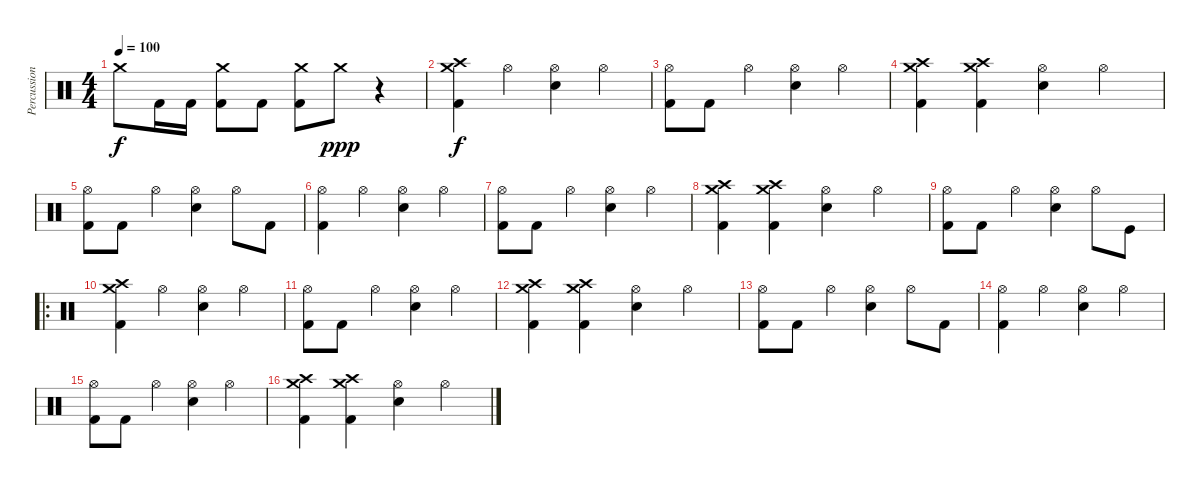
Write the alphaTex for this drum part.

\track ("Percussion" "Percussion") {instrument percussion}
\staff {score}
\articulation defaults
\ts (4 4)
\tempo 100
\clef neutral
\ks c "Crash medium (hit)".8{dy f} "Kick (hit) 2".16 "Kick (hit) 2".16
("Crash medium (hit)" "Kick (hit) 2").8 "Kick (hit) 2".8 ("Crash medium (hit)" "Kick (hit) 2").8 "Crash medium (hit)".8{dy ppp} r.4 |
("Crash high (hit)" "Crash medium (hit)" "Kick (hit) 2").4{dy f} "Hi-Hat (open)".4 ("Hi-Hat (open)" "Snare (hit) 2").4 "Hi-Hat (open)".4 |
("Hi-Hat (open)" "Kick (hit) 2").8 "Kick (hit) 2".8 "Hi-Hat (open)".4 ("Hi-Hat (open)" "Snare (hit) 2").4 "Hi-Hat (open)".4 |
("Crash high (hit)" "Crash medium (hit)" "Kick (hit) 2").4 ("Crash high (hit)" "Crash medium (hit)" "Kick (hit) 2").4 ("Hi-Hat (open)" "Snare (hit) 2").4 "Hi-Hat (open)".4 |
("Hi-Hat (open)" "Kick (hit) 2").8 "Kick (hit) 2".8 "Hi-Hat (open)".4 ("Hi-Hat (open)" "Snare (hit) 2").4 "Hi-Hat (open)".8 "Kick (hit) 2".8 |
("Hi-Hat (open)" "Kick (hit) 2").4 "Hi-Hat (open)".4 ("Hi-Hat (open)" "Snare (hit) 2").4 "Hi-Hat (open)".4 |
("Hi-Hat (open)" "Kick (hit) 2").8 "Kick (hit) 2".8 "Hi-Hat (open)".4 ("Hi-Hat (open)" "Snare (hit) 2").4 "Hi-Hat (open)".4 |
("Crash high (hit)" "Crash medium (hit)" "Kick (hit) 2").4 ("Crash high (hit)" "Crash medium (hit)" "Kick (hit) 2").4 ("Hi-Hat (open)" "Snare (hit) 2").4 "Hi-Hat (open)".4 |
("Hi-Hat (open)" "Kick (hit) 2").8 "Kick (hit) 2".8 "Hi-Hat (open)".4 ("Hi-Hat (open)" "Snare (hit) 2").4 "Hi-Hat (open)".8 "Kick (hit)".8 |
\ro
("Crash high (hit)" "Crash medium (hit)" "Kick (hit) 2").4 "Hi-Hat (open)".4 ("Hi-Hat (open)" "Snare (hit) 2").4 "Hi-Hat (open)".4 |
("Hi-Hat (open)" "Kick (hit) 2").8 "Kick (hit) 2".8 "Hi-Hat (open)".4 ("Hi-Hat (open)" "Snare (hit) 2").4 "Hi-Hat (open)".4 |
("Crash high (hit)" "Crash medium (hit)" "Kick (hit) 2").4 ("Crash high (hit)" "Crash medium (hit)" "Kick (hit) 2").4 ("Hi-Hat (open)" "Snare (hit) 2").4 "Hi-Hat (open)".4 |
("Hi-Hat (open)" "Kick (hit) 2").8 "Kick (hit) 2".8 "Hi-Hat (open)".4 ("Hi-Hat (open)" "Snare (hit) 2").4 "Hi-Hat (open)".8 "Kick (hit) 2".8 |
("Hi-Hat (open)" "Kick (hit) 2").4 "Hi-Hat (open)".4 ("Hi-Hat (open)" "Snare (hit) 2").4 "Hi-Hat (open)".4 |
("Hi-Hat (open)" "Kick (hit) 2").8 "Kick (hit) 2".8 "Hi-Hat (open)".4 ("Hi-Hat (open)" "Snare (hit) 2").4 "Hi-Hat (open)".4 |
("Crash high (hit)" "Crash medium (hit)" "Kick (hit) 2").4 ("Crash high (hit)" "Crash medium (hit)" "Kick (hit) 2").4 ("Hi-Hat (open)" "Snare (hit) 2").4 "Hi-Hat (open)".4
